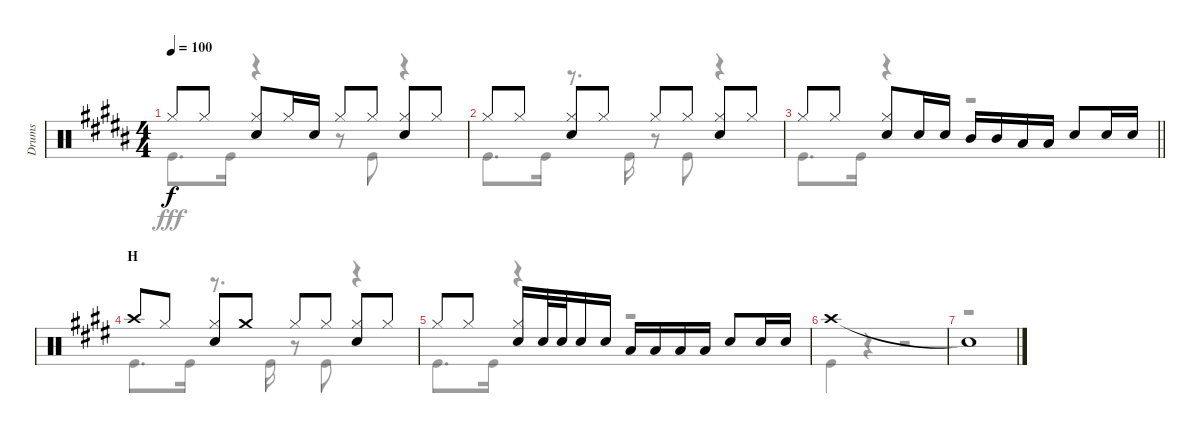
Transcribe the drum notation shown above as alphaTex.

\track ("Drums" "Drums") {instrument percussion}
\staff {score}
\articulation defaults
\voice
\ts (4 4)
\tempo 100
\clef neutral
\ks b "Hi-Hat (closed)".8{dy f} "Hi-Hat (closed)".8
("Hi-Hat (closed)" "Snare (hit) 2").8 "Hi-Hat (closed)".16 "Snare (hit) 2".16 "Hi-Hat (closed)".8 "Hi-Hat (closed)".8 ("Hi-Hat (closed)" "Snare (hit) 2").8 "Hi-Hat (closed)".8 |
"Hi-Hat (closed)".8 "Hi-Hat (closed)".8 ("Hi-Hat (closed)" "Snare (hit) 2").8 "Hi-Hat (closed)".8 "Hi-Hat (closed)".8 "Hi-Hat (closed)".8 ("Hi-Hat (closed)" "Snare (hit) 2").8 "Hi-Hat (closed)".8 |
\barLineRight lightlight "Hi-Hat (closed)".8 "Hi-Hat (closed)".8
("Hi-Hat (closed)" "Snare (hit) 2").8 "Snare (hit) 2".16 "Snare (hit) 2".16 "Mid Tom (hit)".16 "Mid Tom (hit)".16 "Low Tom (hit)".16 "Low Tom (hit)".16 "Snare (hit) 2".8 "Snare (hit) 2".16 "Snare (hit) 2".16 |
\section ("" "H")
\ks e "Crash high (hit)".8 "Hi-Hat (closed)".8
("Hi-Hat (closed)" "Snare (hit) 2").8 "Crash medium (hit)".8 "Hi-Hat (closed)".8 "Hi-Hat (closed)".8 ("Hi-Hat (closed)" "Snare (hit) 2").8 "Hi-Hat (closed)".8 |
"Hi-Hat (closed)".8 "Hi-Hat (closed)".8 ("Hi-Hat (closed)" "Snare (hit) 2").16 "Snare (hit) 2".32 "Snare (hit) 2".32 "Snare (hit) 2".16 "Snare (hit) 2".16 "Low Tom (hit)".16 "Low Tom (hit)".16 "Low Tom (hit)".16 "Low Tom (hit)".16 "Snare (hit) 2".8 "Snare (hit) 2".16 "Snare (hit) 2".16 |
"Crash high (hit)".1 |
"Snare (hit)"{t}.1
\voice
\clef neutral
\ottava regular
\simile none
\ks b "Kick (hit)".8{d dy fff} "Kick (hit)".16
r.4 r.8 "Kick (hit)".8 r.4 |
"Kick (hit)".8{d} "Kick (hit)".16 r.8{d} "Kick (hit)".16 r.8 "Kick (hit)".8 r.4 |
\barLineRight lightlight "Kick (hit)".8{d} "Kick (hit)".16
r.4 r.2 |
\ks e "Kick (hit)".8{d} "Kick (hit)".16
r.8{d} "Kick (hit)".16 r.8 "Kick (hit)".8 r.4 |
"Kick (hit)".8{d} "Kick (hit)".16 r.4 r.2 |
"Kick (hit)".4 r.4 r.2 |
r.1
